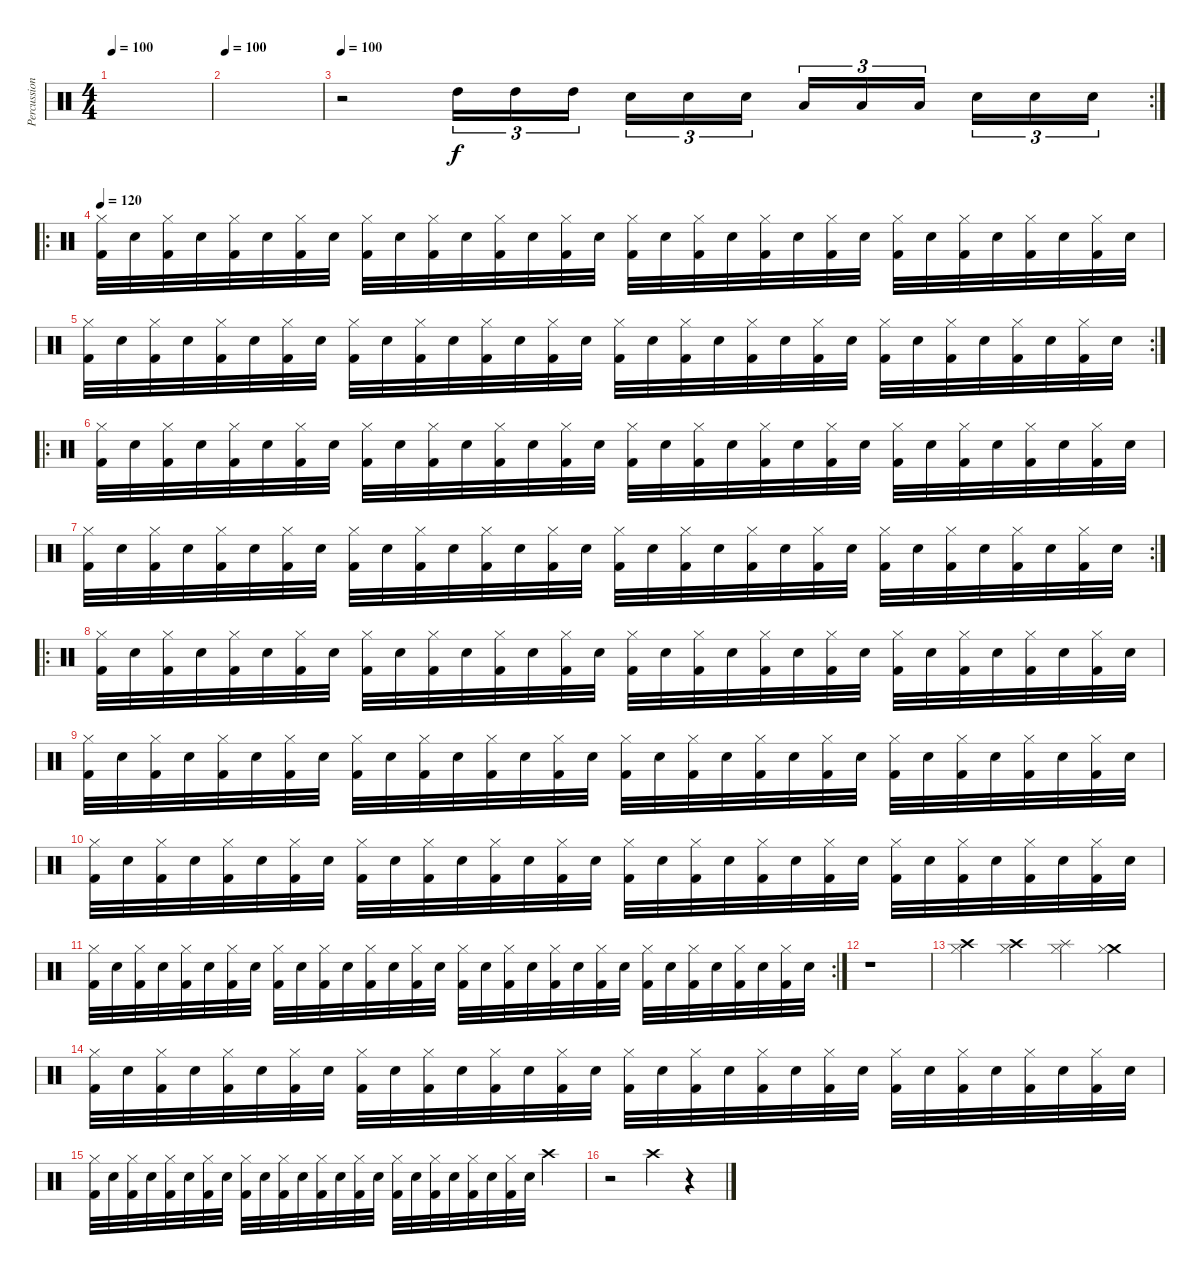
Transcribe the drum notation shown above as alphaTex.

\track ("Percussion" "Percussion") {instrument percussion}
\staff {score}
\articulation defaults
\ts (4 4)
\tempo 100
\clef neutral
\ks c
|
\tempo 100
|
\rc 2
\tempo 100
r.2 "High Tom (hit)".16{tu (3 2)} "High Tom (hit)".16{tu (3 2)} "High Tom (hit)".16{tu (3 2)} "Electric Snare (hit)".16{tu (3 2)} "Electric Snare (hit)".16{tu (3 2)} "Electric Snare (hit)".16{tu (3 2)} "Low Tom (hit)".16{tu (3 2)} "Low Tom (hit)".16{tu (3 2)} "Low Tom (hit)".16{tu (3 2)} "Snare (hit) 2".16{tu (3 2)} "Snare (hit) 2".16{tu (3 2)} "Snare (hit) 2".16{tu (3 2)} |
\ro
\tempo 120
("Kick (hit) 2" "Hi-Hat (closed)").32 "Snare (hit) 2".32 ("Kick (hit) 2" "Hi-Hat (closed)").32 "Snare (hit) 2".32 ("Kick (hit) 2" "Hi-Hat (closed)").32 "Snare (hit) 2".32 ("Kick (hit) 2" "Hi-Hat (closed)").32 "Snare (hit) 2".32 ("Kick (hit) 2" "Hi-Hat (closed)").32 "Snare (hit) 2".32 ("Kick (hit) 2" "Hi-Hat (closed)").32 "Snare (hit) 2".32 ("Kick (hit) 2" "Hi-Hat (closed)").32 "Snare (hit) 2".32 ("Kick (hit) 2" "Hi-Hat (closed)").32 "Snare (hit) 2".32 ("Kick (hit) 2" "Hi-Hat (closed)").32 "Snare (hit) 2".32 ("Kick (hit) 2" "Hi-Hat (closed)").32 "Snare (hit) 2".32 ("Kick (hit) 2" "Hi-Hat (closed)").32 "Snare (hit) 2".32 ("Kick (hit) 2" "Hi-Hat (closed)").32 "Snare (hit) 2".32 ("Kick (hit) 2" "Hi-Hat (closed)").32 "Snare (hit) 2".32 ("Kick (hit) 2" "Hi-Hat (closed)").32 "Snare (hit) 2".32 ("Kick (hit) 2" "Hi-Hat (closed)").32 "Snare (hit) 2".32 ("Kick (hit) 2" "Hi-Hat (closed)").32 "Snare (hit) 2".32 |
\rc 2
("Kick (hit) 2" "Hi-Hat (closed)").32 "Snare (hit) 2".32 ("Kick (hit) 2" "Hi-Hat (closed)").32 "Snare (hit) 2".32 ("Kick (hit) 2" "Hi-Hat (closed)").32 "Snare (hit) 2".32 ("Kick (hit) 2" "Hi-Hat (closed)").32 "Snare (hit) 2".32 ("Kick (hit) 2" "Hi-Hat (closed)").32 "Snare (hit) 2".32 ("Kick (hit) 2" "Hi-Hat (closed)").32 "Snare (hit) 2".32 ("Kick (hit) 2" "Hi-Hat (closed)").32 "Snare (hit) 2".32 ("Kick (hit) 2" "Hi-Hat (closed)").32 "Snare (hit) 2".32 ("Kick (hit) 2" "Hi-Hat (closed)").32 "Snare (hit) 2".32 ("Kick (hit) 2" "Hi-Hat (closed)").32 "Snare (hit) 2".32 ("Kick (hit) 2" "Hi-Hat (closed)").32 "Snare (hit) 2".32 ("Kick (hit) 2" "Hi-Hat (closed)").32 "Snare (hit) 2".32 ("Kick (hit) 2" "Hi-Hat (closed)").32 "Snare (hit) 2".32 ("Kick (hit) 2" "Hi-Hat (closed)").32 "Snare (hit) 2".32 ("Kick (hit) 2" "Hi-Hat (closed)").32 "Snare (hit) 2".32 ("Kick (hit) 2" "Hi-Hat (closed)").32 "Snare (hit) 2".32 |
\ro
("Kick (hit) 2" "Hi-Hat (closed)").32 "Snare (hit) 2".32 ("Kick (hit) 2" "Hi-Hat (closed)").32 "Snare (hit) 2".32 ("Kick (hit) 2" "Hi-Hat (closed)").32 "Snare (hit) 2".32 ("Kick (hit) 2" "Hi-Hat (closed)").32 "Snare (hit) 2".32 ("Kick (hit) 2" "Hi-Hat (closed)").32 "Snare (hit) 2".32 ("Kick (hit) 2" "Hi-Hat (closed)").32 "Snare (hit) 2".32 ("Kick (hit) 2" "Hi-Hat (closed)").32 "Snare (hit) 2".32 ("Kick (hit) 2" "Hi-Hat (closed)").32 "Snare (hit) 2".32 ("Kick (hit) 2" "Hi-Hat (closed)").32 "Snare (hit) 2".32 ("Kick (hit) 2" "Hi-Hat (closed)").32 "Snare (hit) 2".32 ("Kick (hit) 2" "Hi-Hat (closed)").32 "Snare (hit) 2".32 ("Kick (hit) 2" "Hi-Hat (closed)").32 "Snare (hit) 2".32 ("Kick (hit) 2" "Hi-Hat (closed)").32 "Snare (hit) 2".32 ("Kick (hit) 2" "Hi-Hat (closed)").32 "Snare (hit) 2".32 ("Kick (hit) 2" "Hi-Hat (closed)").32 "Snare (hit) 2".32 ("Kick (hit) 2" "Hi-Hat (closed)").32 "Snare (hit) 2".32 |
\rc 2
("Kick (hit) 2" "Hi-Hat (closed)").32 "Snare (hit) 2".32 ("Kick (hit) 2" "Hi-Hat (closed)").32 "Snare (hit) 2".32 ("Kick (hit) 2" "Hi-Hat (closed)").32 "Snare (hit) 2".32 ("Kick (hit) 2" "Hi-Hat (closed)").32 "Snare (hit) 2".32 ("Kick (hit) 2" "Hi-Hat (closed)").32 "Snare (hit) 2".32 ("Kick (hit) 2" "Hi-Hat (closed)").32 "Snare (hit) 2".32 ("Kick (hit) 2" "Hi-Hat (closed)").32 "Snare (hit) 2".32 ("Kick (hit) 2" "Hi-Hat (closed)").32 "Snare (hit) 2".32 ("Kick (hit) 2" "Hi-Hat (closed)").32 "Snare (hit) 2".32 ("Kick (hit) 2" "Hi-Hat (closed)").32 "Snare (hit) 2".32 ("Kick (hit) 2" "Hi-Hat (closed)").32 "Snare (hit) 2".32 ("Kick (hit) 2" "Hi-Hat (closed)").32 "Snare (hit) 2".32 ("Kick (hit) 2" "Hi-Hat (closed)").32 "Snare (hit) 2".32 ("Kick (hit) 2" "Hi-Hat (closed)").32 "Snare (hit) 2".32 ("Kick (hit) 2" "Hi-Hat (closed)").32 "Snare (hit) 2".32 ("Kick (hit) 2" "Hi-Hat (closed)").32 "Snare (hit) 2".32 |
\ro
("Kick (hit) 2" "Hi-Hat (closed)").32 "Snare (hit) 2".32 ("Kick (hit) 2" "Hi-Hat (closed)").32 "Snare (hit) 2".32 ("Kick (hit) 2" "Hi-Hat (closed)").32 "Snare (hit) 2".32 ("Kick (hit) 2" "Hi-Hat (closed)").32 "Snare (hit) 2".32 ("Kick (hit) 2" "Hi-Hat (closed)").32 "Snare (hit) 2".32 ("Kick (hit) 2" "Hi-Hat (closed)").32 "Snare (hit) 2".32 ("Kick (hit) 2" "Hi-Hat (closed)").32 "Snare (hit) 2".32 ("Kick (hit) 2" "Hi-Hat (closed)").32 "Snare (hit) 2".32 ("Kick (hit) 2" "Hi-Hat (closed)").32 "Snare (hit) 2".32 ("Kick (hit) 2" "Hi-Hat (closed)").32 "Snare (hit) 2".32 ("Kick (hit) 2" "Hi-Hat (closed)").32 "Snare (hit) 2".32 ("Kick (hit) 2" "Hi-Hat (closed)").32 "Snare (hit) 2".32 ("Kick (hit) 2" "Hi-Hat (closed)").32 "Snare (hit) 2".32 ("Kick (hit) 2" "Hi-Hat (closed)").32 "Snare (hit) 2".32 ("Kick (hit) 2" "Hi-Hat (closed)").32 "Snare (hit) 2".32 ("Kick (hit) 2" "Hi-Hat (closed)").32 "Snare (hit) 2".32 |
("Kick (hit) 2" "Hi-Hat (closed)").32 "Snare (hit) 2".32 ("Kick (hit) 2" "Hi-Hat (closed)").32 "Snare (hit) 2".32 ("Kick (hit) 2" "Hi-Hat (closed)").32 "Snare (hit) 2".32 ("Kick (hit) 2" "Hi-Hat (closed)").32 "Snare (hit) 2".32 ("Kick (hit) 2" "Hi-Hat (closed)").32 "Snare (hit) 2".32 ("Kick (hit) 2" "Hi-Hat (closed)").32 "Snare (hit) 2".32 ("Kick (hit) 2" "Hi-Hat (closed)").32 "Snare (hit) 2".32 ("Kick (hit) 2" "Hi-Hat (closed)").32 "Snare (hit) 2".32 ("Kick (hit) 2" "Hi-Hat (closed)").32 "Snare (hit) 2".32 ("Kick (hit) 2" "Hi-Hat (closed)").32 "Snare (hit) 2".32 ("Kick (hit) 2" "Hi-Hat (closed)").32 "Snare (hit) 2".32 ("Kick (hit) 2" "Hi-Hat (closed)").32 "Snare (hit) 2".32 ("Kick (hit) 2" "Hi-Hat (closed)").32 "Snare (hit) 2".32 ("Kick (hit) 2" "Hi-Hat (closed)").32 "Snare (hit) 2".32 ("Kick (hit) 2" "Hi-Hat (closed)").32 "Snare (hit) 2".32 ("Kick (hit) 2" "Hi-Hat (closed)").32 "Snare (hit) 2".32 |
("Kick (hit) 2" "Hi-Hat (closed)").32 "Snare (hit) 2".32 ("Kick (hit) 2" "Hi-Hat (closed)").32 "Snare (hit) 2".32 ("Kick (hit) 2" "Hi-Hat (closed)").32 "Snare (hit) 2".32 ("Kick (hit) 2" "Hi-Hat (closed)").32 "Snare (hit) 2".32 ("Kick (hit) 2" "Hi-Hat (closed)").32 "Snare (hit) 2".32 ("Kick (hit) 2" "Hi-Hat (closed)").32 "Snare (hit) 2".32 ("Kick (hit) 2" "Hi-Hat (closed)").32 "Snare (hit) 2".32 ("Kick (hit) 2" "Hi-Hat (closed)").32 "Snare (hit) 2".32 ("Kick (hit) 2" "Hi-Hat (closed)").32 "Snare (hit) 2".32 ("Kick (hit) 2" "Hi-Hat (closed)").32 "Snare (hit) 2".32 ("Kick (hit) 2" "Hi-Hat (closed)").32 "Snare (hit) 2".32 ("Kick (hit) 2" "Hi-Hat (closed)").32 "Snare (hit) 2".32 ("Kick (hit) 2" "Hi-Hat (closed)").32 "Snare (hit) 2".32 ("Kick (hit) 2" "Hi-Hat (closed)").32 "Snare (hit) 2".32 ("Kick (hit) 2" "Hi-Hat (closed)").32 "Snare (hit) 2".32 ("Kick (hit) 2" "Hi-Hat (closed)").32 "Snare (hit) 2".32 |
\rc 2
("Kick (hit) 2" "Hi-Hat (closed)").32 "Snare (hit) 2".32 ("Kick (hit) 2" "Hi-Hat (closed)").32 "Snare (hit) 2".32 ("Kick (hit) 2" "Hi-Hat (closed)").32 "Snare (hit) 2".32 ("Kick (hit) 2" "Hi-Hat (closed)").32 "Snare (hit) 2".32 ("Kick (hit) 2" "Hi-Hat (closed)").32 "Snare (hit) 2".32 ("Kick (hit) 2" "Hi-Hat (closed)").32 "Snare (hit) 2".32 ("Kick (hit) 2" "Hi-Hat (closed)").32 "Snare (hit) 2".32 ("Kick (hit) 2" "Hi-Hat (closed)").32 "Snare (hit) 2".32 ("Kick (hit) 2" "Hi-Hat (closed)").32 "Snare (hit) 2".32 ("Kick (hit) 2" "Hi-Hat (closed)").32 "Snare (hit) 2".32 ("Kick (hit) 2" "Hi-Hat (closed)").32 "Snare (hit) 2".32 ("Kick (hit) 2" "Hi-Hat (closed)").32 "Snare (hit) 2".32 ("Kick (hit) 2" "Hi-Hat (closed)").32 "Snare (hit) 2".32 ("Kick (hit) 2" "Hi-Hat (closed)").32 "Snare (hit) 2".32 ("Kick (hit) 2" "Hi-Hat (closed)").32 "Snare (hit) 2".32 ("Kick (hit) 2" "Hi-Hat (closed)").32 "Snare (hit) 2".32 |
r.1 |
("Crash high (hit)" "Hi-Hat (closed)").4 ("Crash high (hit)" "Hi-Hat (closed)").4 ("Splash (hit)" "Hi-Hat (closed)").4 ("Crash medium (hit)" "Hi-Hat (closed)").4 |
("Kick (hit) 2" "Hi-Hat (closed)").32 "Snare (hit) 2".32 ("Kick (hit) 2" "Hi-Hat (closed)").32 "Snare (hit) 2".32 ("Kick (hit) 2" "Hi-Hat (closed)").32 "Snare (hit) 2".32 ("Kick (hit) 2" "Hi-Hat (closed)").32 "Snare (hit) 2".32 ("Kick (hit) 2" "Hi-Hat (closed)").32 "Snare (hit) 2".32 ("Kick (hit) 2" "Hi-Hat (closed)").32 "Snare (hit) 2".32 ("Kick (hit) 2" "Hi-Hat (closed)").32 "Snare (hit) 2".32 ("Kick (hit) 2" "Hi-Hat (closed)").32 "Snare (hit) 2".32 ("Kick (hit) 2" "Hi-Hat (closed)").32 "Snare (hit) 2".32 ("Kick (hit) 2" "Hi-Hat (closed)").32 "Snare (hit) 2".32 ("Kick (hit) 2" "Hi-Hat (closed)").32 "Snare (hit) 2".32 ("Kick (hit) 2" "Hi-Hat (closed)").32 "Snare (hit) 2".32 ("Kick (hit) 2" "Hi-Hat (closed)").32 "Snare (hit) 2".32 ("Kick (hit) 2" "Hi-Hat (closed)").32 "Snare (hit) 2".32 ("Kick (hit) 2" "Hi-Hat (closed)").32 "Snare (hit) 2".32 ("Kick (hit) 2" "Hi-Hat (closed)").32 "Snare (hit) 2".32 |
("Kick (hit) 2" "Hi-Hat (closed)").32 "Snare (hit) 2".32 ("Kick (hit) 2" "Hi-Hat (closed)").32 "Snare (hit) 2".32 ("Kick (hit) 2" "Hi-Hat (closed)").32 "Snare (hit) 2".32 ("Kick (hit) 2" "Hi-Hat (closed)").32 "Snare (hit) 2".32 ("Kick (hit) 2" "Hi-Hat (closed)").32 "Snare (hit) 2".32 ("Kick (hit) 2" "Hi-Hat (closed)").32 "Snare (hit) 2".32 ("Kick (hit) 2" "Hi-Hat (closed)").32 "Snare (hit) 2".32 ("Kick (hit) 2" "Hi-Hat (closed)").32 "Snare (hit) 2".32 ("Kick (hit) 2" "Hi-Hat (closed)").32 "Snare (hit) 2".32 ("Kick (hit) 2" "Hi-Hat (closed)").32 "Snare (hit) 2".32 ("Kick (hit) 2" "Hi-Hat (closed)").32 "Snare (hit) 2".32 ("Kick (hit) 2" "Hi-Hat (closed)").32 "Snare (hit) 2".32 "Crash high (hit)".4 |
r.2 "Crash high (hit)".4 r.4
